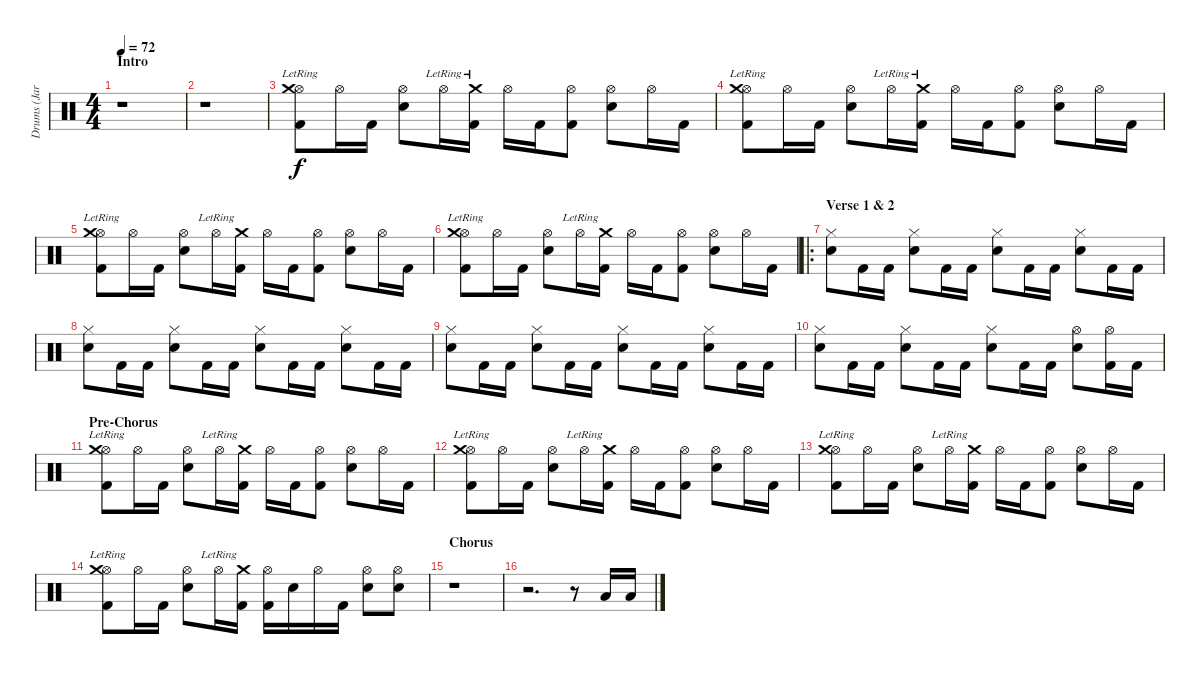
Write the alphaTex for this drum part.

\track ("Drums (Jarod Montague)" "Drums (Jar") {instrument percussion}
\staff {score}
\articulation defaults
\ts (4 4)
\section ("" "Intro")
\tempo 72
\clef neutral
\ks c
r.1{dy f} |
r.1 |
("Hi-Hat (open)" "Crash medium (hit)"{lr} "Kick (hit) 2").8 "Hi-Hat (open)".16 "Kick (hit) 2".16 ("Hi-Hat (open)" "Snare (hit) 2").8 "Hi-Hat (open)"{lr}.16 ("Crash medium (hit)"{lr} "Kick (hit) 2").16 "Hi-Hat (open)".16 "Kick (hit) 2".16 ("Hi-Hat (open)" "Kick (hit) 2").8 ("Hi-Hat (open)" "Snare (hit) 2").8 "Hi-Hat (open)".16 "Kick (hit) 2".16 |
("Hi-Hat (open)" "Crash medium (hit)"{lr} "Kick (hit) 2").8 "Hi-Hat (open)".16 "Kick (hit) 2".16 ("Hi-Hat (open)" "Snare (hit) 2").8 "Hi-Hat (open)"{lr}.16 ("Crash medium (hit)"{lr} "Kick (hit) 2").16 "Hi-Hat (open)".16 "Kick (hit) 2".16 ("Hi-Hat (open)" "Kick (hit) 2").8 ("Hi-Hat (open)" "Snare (hit) 2").8 "Hi-Hat (open)".16 "Kick (hit) 2".16 |
("Hi-Hat (open)" "Crash medium (hit)"{lr} "Kick (hit) 2").8 "Hi-Hat (open)".16 "Kick (hit) 2".16 ("Hi-Hat (open)" "Snare (hit) 2").8 "Hi-Hat (open)"{lr}.16 ("Crash medium (hit)"{lr} "Kick (hit) 2").16 "Hi-Hat (open)".16 "Kick (hit) 2".16 ("Hi-Hat (open)" "Kick (hit) 2").8 ("Hi-Hat (open)" "Snare (hit) 2").8 "Hi-Hat (open)".16 "Kick (hit) 2".16 |
("Hi-Hat (open)" "Crash medium (hit)"{lr} "Kick (hit) 2").8 "Hi-Hat (open)".16 "Kick (hit) 2".16 ("Hi-Hat (open)" "Snare (hit) 2").8 "Hi-Hat (open)"{lr}.16 ("Crash medium (hit)"{lr} "Kick (hit) 2").16 "Hi-Hat (open)".16 "Kick (hit) 2".16 ("Hi-Hat (open)" "Kick (hit) 2").8 ("Hi-Hat (open)" "Snare (hit) 2").8 "Hi-Hat (open)".16 "Kick (hit) 2".16 |
\ro
\section ("" "Verse 1 & 2")
("Hi-Hat (closed)" "Snare (hit) 2").8 "Kick (hit) 2".16 "Kick (hit) 2".16 ("Hi-Hat (closed)" "Snare (hit) 2").8 "Kick (hit) 2".16 "Kick (hit) 2".16 ("Hi-Hat (closed)" "Snare (hit) 2").8 "Kick (hit) 2".16 "Kick (hit) 2".16 ("Hi-Hat (closed)" "Snare (hit) 2").8 "Kick (hit) 2".16 "Kick (hit) 2".16 |
("Hi-Hat (closed)" "Snare (hit) 2").8 "Kick (hit) 2".16 "Kick (hit) 2".16 ("Hi-Hat (closed)" "Snare (hit) 2").8 "Kick (hit) 2".16 "Kick (hit) 2".16 ("Hi-Hat (closed)" "Snare (hit) 2").8 "Kick (hit) 2".16 "Kick (hit) 2".16 ("Hi-Hat (closed)" "Snare (hit) 2").8 "Kick (hit) 2".16 "Kick (hit) 2".16 |
("Hi-Hat (closed)" "Snare (hit) 2").8 "Kick (hit) 2".16 "Kick (hit) 2".16 ("Hi-Hat (closed)" "Snare (hit) 2").8 "Kick (hit) 2".16 "Kick (hit) 2".16 ("Hi-Hat (closed)" "Snare (hit) 2").8 "Kick (hit) 2".16 "Kick (hit) 2".16 ("Hi-Hat (closed)" "Snare (hit) 2").8 "Kick (hit) 2".16 "Kick (hit) 2".16 |
("Hi-Hat (closed)" "Snare (hit) 2").8 "Kick (hit) 2".16 "Kick (hit) 2".16 ("Hi-Hat (closed)" "Snare (hit) 2").8 "Kick (hit) 2".16 "Kick (hit) 2".16 ("Hi-Hat (closed)" "Snare (hit) 2").8 "Kick (hit) 2".16 "Kick (hit) 2".16 ("Hi-Hat (open)" "Snare (hit) 2").8 ("Hi-Hat (open)" "Kick (hit) 2").16 "Kick (hit) 2".16 |
\section ("" "Pre-Chorus")
("Hi-Hat (open)" "Crash medium (hit)"{lr} "Kick (hit) 2").8 "Hi-Hat (open)".16 "Kick (hit) 2".16 ("Hi-Hat (open)" "Snare (hit) 2").8 "Hi-Hat (open)"{lr}.16 ("Crash medium (hit)"{lr} "Kick (hit) 2").16 "Hi-Hat (open)".16 "Kick (hit) 2".16 ("Hi-Hat (open)" "Kick (hit) 2").8 ("Hi-Hat (open)" "Snare (hit) 2").8 "Hi-Hat (open)".16 "Kick (hit) 2".16 |
("Hi-Hat (open)" "Crash medium (hit)"{lr} "Kick (hit) 2").8 "Hi-Hat (open)".16 "Kick (hit) 2".16 ("Hi-Hat (open)" "Snare (hit) 2").8 "Hi-Hat (open)"{lr}.16 ("Crash medium (hit)"{lr} "Kick (hit) 2").16 "Hi-Hat (open)".16 "Kick (hit) 2".16 ("Hi-Hat (open)" "Kick (hit) 2").8 ("Hi-Hat (open)" "Snare (hit) 2").8 "Hi-Hat (open)".16 "Kick (hit) 2".16 |
("Hi-Hat (open)" "Crash medium (hit)"{lr} "Kick (hit) 2").8 "Hi-Hat (open)".16 "Kick (hit) 2".16 ("Hi-Hat (open)" "Snare (hit) 2").8 "Hi-Hat (open)"{lr}.16 ("Crash medium (hit)"{lr} "Kick (hit) 2").16 "Hi-Hat (open)".16 "Kick (hit) 2".16 ("Hi-Hat (open)" "Kick (hit) 2").8 ("Hi-Hat (open)" "Snare (hit) 2").8 "Hi-Hat (open)".16 "Kick (hit) 2".16 |
("Hi-Hat (open)" "Crash medium (hit)"{lr} "Kick (hit) 2").8 "Hi-Hat (open)".16 "Kick (hit) 2".16 ("Hi-Hat (open)" "Snare (hit) 2").8 "Hi-Hat (open)"{lr}.16 ("Crash medium (hit)"{lr} "Kick (hit) 2").16 ("Hi-Hat (open)" "Kick (hit) 2").16 "Snare (hit) 2".16 "Hi-Hat (open)".16 "Kick (hit) 2".16 ("Hi-Hat (open)" "Snare (hit) 2").8 ("Hi-Hat (open)" "Snare (hit) 2").8 |
\section ("" "Chorus")
r.1 |
r.2{d} r.8 "Low Tom (hit)".16 "Low Floor Tom (hit)".16
